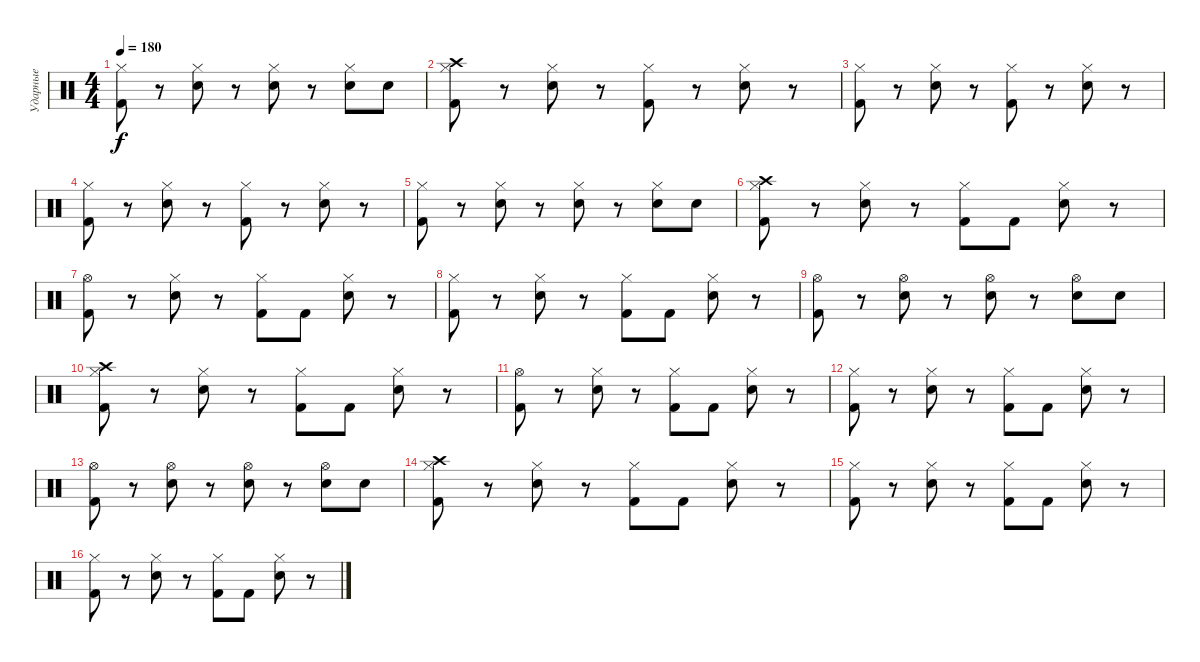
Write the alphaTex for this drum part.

\track ("Ударные" "Ударные") {instrument percussion}
\staff {score}
\articulation defaults
\ts (4 4)
\tempo 180
\clef neutral
\ks c
("Hi-Hat (closed)" "Kick (hit) 2").8{dy f} r.8 ("Hi-Hat (closed)" "Snare (hit) 2").8 r.8 ("Hi-Hat (closed)" "Snare (hit) 2").8 r.8 ("Hi-Hat (closed)" "Snare (hit) 2").8 "Snare (hit) 2".8 |
("Hi-Hat (closed)" "Kick (hit) 2" "Crash high (hit)").8 r.8 ("Hi-Hat (closed)" "Snare (hit) 2").8 r.8 ("Hi-Hat (closed)" "Kick (hit) 2").8 r.8 ("Hi-Hat (closed)" "Snare (hit) 2").8 r.8 |
("Hi-Hat (closed)" "Kick (hit) 2").8 r.8 ("Hi-Hat (closed)" "Snare (hit) 2").8 r.8 ("Hi-Hat (closed)" "Kick (hit) 2").8 r.8 ("Hi-Hat (closed)" "Snare (hit) 2").8 r.8 |
("Hi-Hat (closed)" "Kick (hit) 2").8 r.8 ("Hi-Hat (closed)" "Snare (hit) 2").8 r.8 ("Hi-Hat (closed)" "Kick (hit) 2").8 r.8 ("Hi-Hat (closed)" "Snare (hit) 2").8 r.8 |
("Hi-Hat (closed)" "Kick (hit) 2").8 r.8 ("Hi-Hat (closed)" "Snare (hit) 2").8 r.8 ("Hi-Hat (closed)" "Snare (hit) 2").8 r.8 ("Hi-Hat (closed)" "Snare (hit) 2").8 "Snare (hit) 2".8 |
("Hi-Hat (closed)" "Kick (hit) 2" "Crash high (hit)").8 r.8 ("Hi-Hat (closed)" "Electric Snare (hit)").8 r.8 ("Hi-Hat (closed)" "Kick (hit) 2").8 "Kick (hit) 2".8 ("Hi-Hat (closed)" "Electric Snare (hit)").8 r.8 |
("Hi-Hat (open)" "Kick (hit) 2").8 r.8 ("Hi-Hat (closed)" "Electric Snare (hit)").8 r.8 ("Hi-Hat (closed)" "Kick (hit) 2").8 "Kick (hit) 2".8 ("Hi-Hat (closed)" "Electric Snare (hit)").8 r.8 |
("Hi-Hat (closed)" "Kick (hit) 2").8 r.8 ("Hi-Hat (closed)" "Electric Snare (hit)").8 r.8 ("Hi-Hat (closed)" "Kick (hit) 2").8 "Kick (hit) 2".8 ("Hi-Hat (closed)" "Electric Snare (hit)").8 r.8 |
("Hi-Hat (open)" "Kick (hit) 2").8 r.8 ("Hi-Hat (open)" "Snare (hit) 2").8 r.8 ("Hi-Hat (open)" "Snare (hit) 2").8 r.8 ("Hi-Hat (open)" "Snare (hit) 2").8 "Snare (hit) 2".8 |
("Hi-Hat (closed)" "Kick (hit) 2" "Crash high (hit)").8 r.8 ("Hi-Hat (closed)" "Electric Snare (hit)").8 r.8 ("Hi-Hat (closed)" "Kick (hit) 2").8 "Kick (hit) 2".8 ("Hi-Hat (closed)" "Electric Snare (hit)").8 r.8 |
("Hi-Hat (open)" "Kick (hit) 2").8 r.8 ("Hi-Hat (closed)" "Electric Snare (hit)").8 r.8 ("Hi-Hat (closed)" "Kick (hit) 2").8 "Kick (hit) 2".8 ("Hi-Hat (closed)" "Electric Snare (hit)").8 r.8 |
("Hi-Hat (closed)" "Kick (hit) 2").8 r.8 ("Hi-Hat (closed)" "Electric Snare (hit)").8 r.8 ("Hi-Hat (closed)" "Kick (hit) 2").8 "Kick (hit) 2".8 ("Hi-Hat (closed)" "Electric Snare (hit)").8 r.8 |
("Hi-Hat (open)" "Kick (hit) 2").8 r.8 ("Hi-Hat (open)" "Snare (hit) 2").8 r.8 ("Hi-Hat (open)" "Snare (hit) 2").8 r.8 ("Hi-Hat (open)" "Snare (hit) 2").8 "Snare (hit) 2".8 |
("Hi-Hat (closed)" "Kick (hit) 2" "Crash high (hit)").8 r.8 ("Hi-Hat (closed)" "Electric Snare (hit)").8 r.8 ("Hi-Hat (closed)" "Kick (hit) 2").8 "Kick (hit) 2".8 ("Hi-Hat (closed)" "Electric Snare (hit)").8 r.8 |
("Hi-Hat (closed)" "Kick (hit) 2").8 r.8 ("Hi-Hat (closed)" "Electric Snare (hit)").8 r.8 ("Hi-Hat (closed)" "Kick (hit) 2").8 "Kick (hit) 2".8 ("Hi-Hat (closed)" "Electric Snare (hit)").8 r.8 |
("Hi-Hat (closed)" "Kick (hit) 2").8 r.8 ("Hi-Hat (closed)" "Electric Snare (hit)").8 r.8 ("Hi-Hat (closed)" "Kick (hit) 2").8 "Kick (hit) 2".8 ("Hi-Hat (closed)" "Electric Snare (hit)").8 r.8
